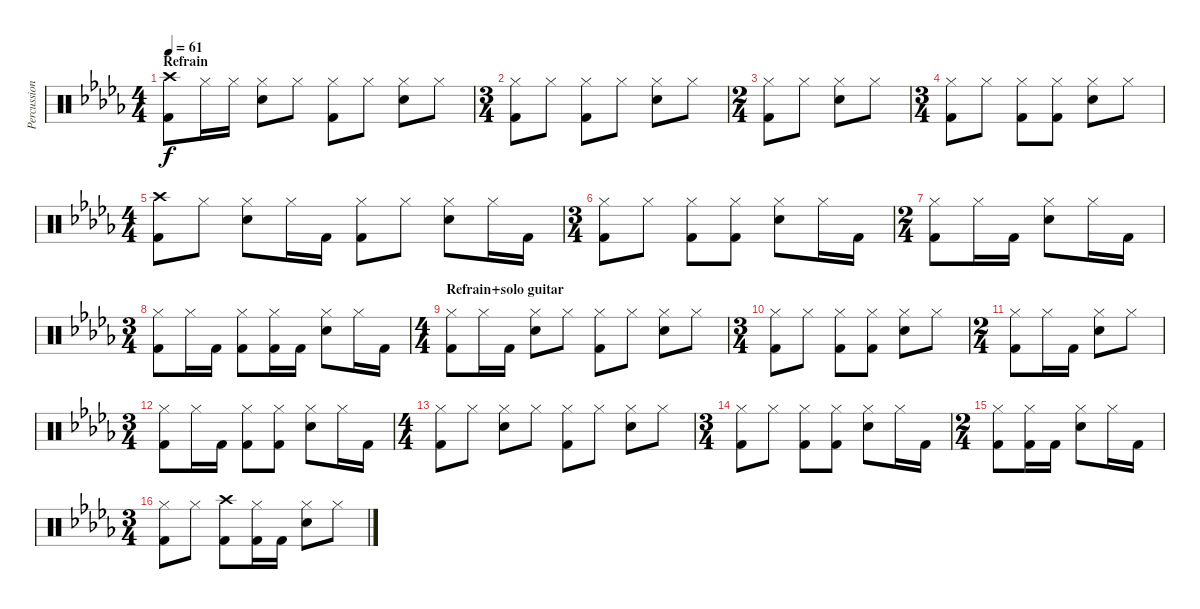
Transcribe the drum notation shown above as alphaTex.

\track ("Percussions" "Percussion") {instrument percussion}
\staff {score}
\articulation defaults
\ts (4 4)
\section ("" "Refrain")
\tempo 61
\clef neutral
\ks db
("Crash high (hit)" "Kick (hit) 2").8{dy f} "Hi-Hat (closed)".16 "Hi-Hat (closed)".16 ("Hi-Hat (closed)" "Electric Snare (hit)").8 "Hi-Hat (closed)".8 ("Hi-Hat (closed)" "Kick (hit) 2").8 "Hi-Hat (closed)".8 ("Hi-Hat (closed)" "Electric Snare (hit)").8 "Hi-Hat (closed)".8 |
\ts (3 4)
("Hi-Hat (closed)" "Kick (hit) 2").8 "Hi-Hat (closed)".8 ("Hi-Hat (closed)" "Kick (hit) 2").8 "Hi-Hat (closed)".8 ("Hi-Hat (closed)" "Electric Snare (hit)").8 "Hi-Hat (closed)".8 |
\ts (2 4)
("Hi-Hat (closed)" "Kick (hit) 2").8 "Hi-Hat (closed)".8 ("Hi-Hat (closed)" "Electric Snare (hit)").8 "Hi-Hat (closed)".8 |
\ts (3 4)
("Hi-Hat (closed)" "Kick (hit) 2").8 "Hi-Hat (closed)".8 ("Hi-Hat (closed)" "Kick (hit) 2").8 ("Hi-Hat (closed)" "Kick (hit) 2").8 ("Hi-Hat (closed)" "Electric Snare (hit)").8 "Hi-Hat (closed)".8 |
\ts (4 4)
("Crash high (hit)" "Kick (hit) 2").8 "Hi-Hat (closed)".8 ("Hi-Hat (closed)" "Electric Snare (hit)").8 "Hi-Hat (closed)".16 "Kick (hit) 2".16 ("Hi-Hat (closed)" "Kick (hit) 2").8 "Hi-Hat (closed)".8 ("Hi-Hat (closed)" "Electric Snare (hit)").8 "Hi-Hat (closed)".16 "Kick (hit) 2".16 |
\ts (3 4)
("Hi-Hat (closed)" "Kick (hit) 2").8 "Hi-Hat (closed)".8 ("Hi-Hat (closed)" "Kick (hit) 2").8 ("Hi-Hat (closed)" "Kick (hit) 2").8 ("Hi-Hat (closed)" "Electric Snare (hit)").8 "Hi-Hat (closed)".16 "Kick (hit) 2".16 |
\ts (2 4)
("Hi-Hat (closed)" "Kick (hit) 2").8 "Hi-Hat (closed)".16 "Kick (hit) 2".16 ("Hi-Hat (closed)" "Electric Snare (hit)").8 "Hi-Hat (closed)".16 "Kick (hit) 2".16 |
\ts (3 4)
("Hi-Hat (closed)" "Kick (hit) 2").8 "Hi-Hat (closed)".16 "Kick (hit) 2".16 ("Hi-Hat (closed)" "Kick (hit) 2").8 ("Hi-Hat (closed)" "Kick (hit) 2").16 "Kick (hit) 2".16 ("Hi-Hat (closed)" "Electric Snare (hit)").8 "Hi-Hat (closed)".16 "Kick (hit) 2".16 |
\ts (4 4)
\section ("" "Refrain+solo guitar")
("Hi-Hat (closed)" "Kick (hit) 2").8 "Hi-Hat (closed)".16 "Kick (hit) 2".16 ("Hi-Hat (closed)" "Electric Snare (hit)").8 "Hi-Hat (closed)".8 ("Hi-Hat (closed)" "Kick (hit) 2").8 "Hi-Hat (closed)".8 ("Hi-Hat (closed)" "Electric Snare (hit)").8 "Hi-Hat (closed)".8 |
\ts (3 4)
("Hi-Hat (closed)" "Kick (hit) 2").8 "Hi-Hat (closed)".8 ("Hi-Hat (closed)" "Kick (hit) 2").8 ("Hi-Hat (closed)" "Kick (hit) 2").8 ("Hi-Hat (closed)" "Electric Snare (hit)").8 "Hi-Hat (closed)".8 |
\ts (2 4)
("Hi-Hat (closed)" "Kick (hit) 2").8 "Hi-Hat (closed)".16 "Kick (hit) 2".16 ("Hi-Hat (closed)" "Electric Snare (hit)").8 "Hi-Hat (closed)".8 |
\ts (3 4)
("Hi-Hat (closed)" "Kick (hit) 2").8 "Hi-Hat (closed)".16 "Kick (hit) 2".16 ("Hi-Hat (closed)" "Kick (hit) 2").8 ("Hi-Hat (closed)" "Kick (hit) 2").8 ("Hi-Hat (closed)" "Electric Snare (hit)").8 "Hi-Hat (closed)".16 "Kick (hit) 2".16 |
\ts (4 4)
("Hi-Hat (closed)" "Kick (hit) 2").8 "Hi-Hat (closed)".8 ("Hi-Hat (closed)" "Electric Snare (hit)").8 "Hi-Hat (closed)".8 ("Hi-Hat (closed)" "Kick (hit) 2").8 "Hi-Hat (closed)".8 ("Hi-Hat (closed)" "Electric Snare (hit)").8 "Hi-Hat (closed)".8 |
\ts (3 4)
("Hi-Hat (closed)" "Kick (hit) 2").8 "Hi-Hat (closed)".8 ("Hi-Hat (closed)" "Kick (hit) 2").8 ("Hi-Hat (closed)" "Kick (hit) 2").8 ("Hi-Hat (closed)" "Electric Snare (hit)").8 "Hi-Hat (closed)".16 "Kick (hit) 2".16 |
\ts (2 4)
("Hi-Hat (closed)" "Kick (hit) 2").8 ("Hi-Hat (closed)" "Kick (hit) 2").16 "Kick (hit) 2".16 ("Hi-Hat (closed)" "Electric Snare (hit)").8 "Hi-Hat (closed)".16 "Kick (hit) 2".16 |
\ts (3 4)
("Hi-Hat (closed)" "Kick (hit) 2").8 "Hi-Hat (closed)".8 ("Crash high (hit)" "Kick (hit) 2").8 ("Hi-Hat (closed)" "Kick (hit) 2").16 "Kick (hit) 2".16 ("Hi-Hat (closed)" "Electric Snare (hit)").8 "Hi-Hat (closed)".8
